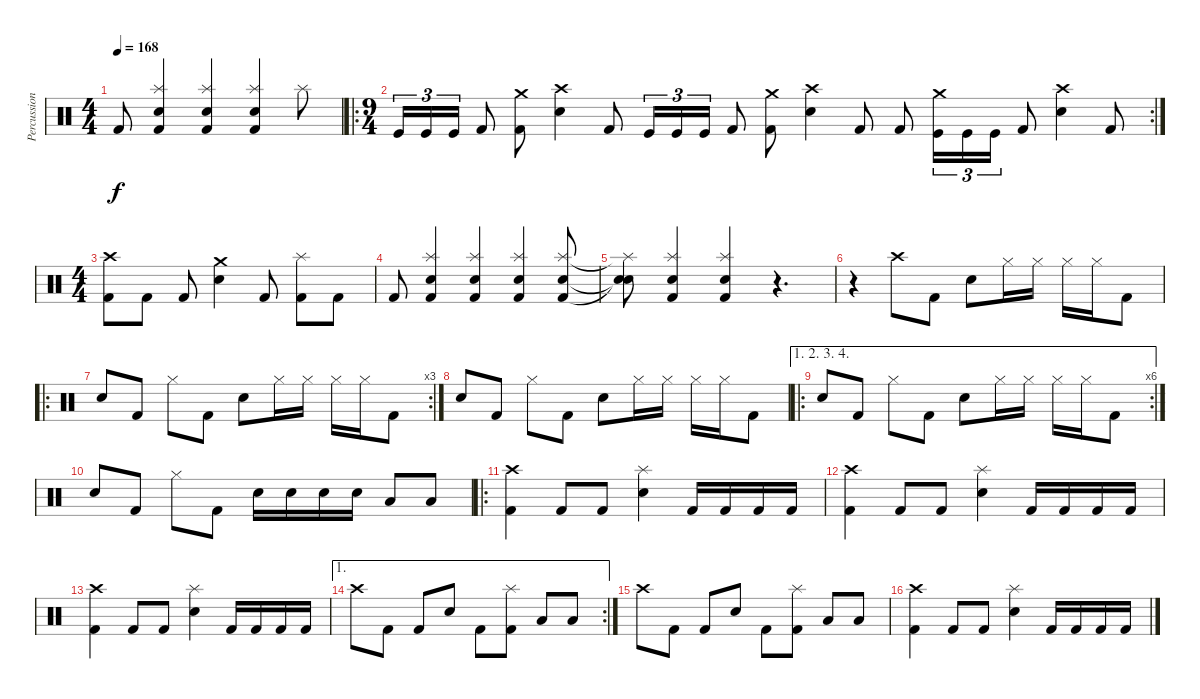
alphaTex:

\track ("Percussion" "Percussion") {instrument percussion}
\staff {score}
\articulation defaults
\ts (4 4)
\tempo 168
\clef neutral
\ks c "Kick (hit) 2".8{dy f}
("Splash (hit)" "Electric Snare (hit)" "Kick (hit) 2").4 ("Splash (hit)" "Electric Snare (hit)" "Kick (hit) 2").4 ("Splash (hit)" "Electric Snare (hit)" "Kick (hit) 2").4 "Splash (hit)".8 |
\ro
\rc 2
\ts (9 4)
"Kick (hit)".16{tu (3 2)} "Kick (hit)".16{tu (3 2)} "Kick (hit)".16{tu (3 2)} "Kick (hit) 2".8 ("Crash medium (hit)" "Kick (hit) 2").8 ("Crash high (hit)" "Electric Snare (hit)").4 "Kick (hit) 2".8 "Kick (hit)".16{tu (3 2)} "Kick (hit)".16{tu (3 2)} "Kick (hit)".16{tu (3 2)} "Kick (hit) 2".8 ("Crash medium (hit)" "Kick (hit) 2").8 ("Crash high (hit)" "Electric Snare (hit)").4 "Kick (hit) 2".8 "Kick (hit) 2".8 ("Crash medium (hit)" "Kick (hit)").16{tu (3 2)} "Kick (hit)".16{tu (3 2)} "Kick (hit)".16{tu (3 2)} "Kick (hit) 2".8 ("Crash high (hit)" "Electric Snare (hit)").4 "Kick (hit) 2".8 |
\ts (4 4)
("Crash high (hit)" "Kick (hit) 2").8 "Kick (hit) 2".8 "Kick (hit) 2".8 ("Crash medium (hit)" "Electric Snare (hit)").4 "Kick (hit) 2".8 ("Splash (hit)" "Kick (hit) 2").8 "Kick (hit) 2".8 |
"Kick (hit) 2".8 ("Splash (hit)" "Electric Snare (hit)" "Kick (hit) 2").4 ("Splash (hit)" "Electric Snare (hit)" "Kick (hit) 2").4 ("Splash (hit)" "Electric Snare (hit)" "Kick (hit) 2").4 ("Splash (hit)" "Electric Snare (hit)" "Kick (hit) 2").8 |
("Splash (hit)"{t} "Snare (hit)"{t} "Snare (hit)"{t}).8 ("Splash (hit)" "Electric Snare (hit)" "Kick (hit) 2").4 ("Splash (hit)" "Electric Snare (hit)" "Kick (hit) 2").4 r.4{d} |
r.4 "Crash high (hit)".8 "Kick (hit) 2".8 "Electric Snare (hit)".8 "Hi-Hat (closed)".16 "Hi-Hat (closed)".16 "Hi-Hat (closed)".16 "Hi-Hat (closed)".16 "Kick (hit) 2".8 |
\ro
\rc 3 "Electric Snare (hit)".8 "Kick (hit) 2".8 "Hi-Hat (closed)".8 "Kick (hit) 2".8 "Electric Snare (hit)".8 "Hi-Hat (closed)".16 "Hi-Hat (closed)".16 "Hi-Hat (closed)".16 "Hi-Hat (closed)".16 "Kick (hit) 2".8
|
"Electric Snare (hit)".8 "Kick (hit) 2".8 "Hi-Hat (closed)".8 "Kick (hit) 2".8 "Electric Snare (hit)".8 "Hi-Hat (closed)".16 "Hi-Hat (closed)".16 "Hi-Hat (closed)".16 "Hi-Hat (closed)".16 "Kick (hit) 2".8 |
\ae (1 2 3 4)
\ro
\rc 6 "Electric Snare (hit)".8 "Kick (hit) 2".8 "Hi-Hat (closed)".8 "Kick (hit) 2".8 "Electric Snare (hit)".8 "Hi-Hat (closed)".16 "Hi-Hat (closed)".16 "Hi-Hat (closed)".16 "Hi-Hat (closed)".16 "Kick (hit) 2".8
|
"Electric Snare (hit)".8 "Kick (hit) 2".8 "Hi-Hat (closed)".8 "Kick (hit) 2".8 "Electric Snare (hit)".16 "Electric Snare (hit)".16 "Electric Snare (hit)".16 "Electric Snare (hit)".16 "Low Floor Tom (hit)".8 "Low Floor Tom (hit)".8 |
\ro
("Crash high (hit)" "Kick (hit) 2").4 "Kick (hit) 2".8 "Kick (hit) 2".8 ("Splash (hit)" "Electric Snare (hit)").4 "Kick (hit) 2".16 "Kick (hit) 2".16 "Kick (hit) 2".16 "Kick (hit) 2".16 |
("Crash high (hit)" "Kick (hit) 2").4 "Kick (hit) 2".8 "Kick (hit) 2".8 ("Splash (hit)" "Electric Snare (hit)").4 "Kick (hit) 2".16 "Kick (hit) 2".16 "Kick (hit) 2".16 "Kick (hit) 2".16 |
("Crash high (hit)" "Kick (hit) 2").4 "Kick (hit) 2".8 "Kick (hit) 2".8 ("Splash (hit)" "Electric Snare (hit)").4 "Kick (hit) 2".16 "Kick (hit) 2".16 "Kick (hit) 2".16 "Kick (hit) 2".16 |
\ae 1
\rc 2 "Crash high (hit)".8 "Kick (hit) 2".8 "Kick (hit) 2".8 "Electric Snare (hit)".8 "Kick (hit) 2".8
("Splash (hit)" "Kick (hit) 2").8 "Low Floor Tom (hit)".8 "Low Floor Tom (hit)".8 |
"Crash high (hit)".8 "Kick (hit) 2".8 "Kick (hit) 2".8 "Electric Snare (hit)".8 "Kick (hit) 2".8 ("Splash (hit)" "Kick (hit) 2").8 "Low Floor Tom (hit)".8 "Low Floor Tom (hit)".8 |
("Crash high (hit)" "Kick (hit) 2").4 "Kick (hit) 2".8 "Kick (hit) 2".8 ("Splash (hit)" "Electric Snare (hit)").4 "Kick (hit) 2".16 "Kick (hit) 2".16 "Kick (hit) 2".16 "Kick (hit) 2".16
